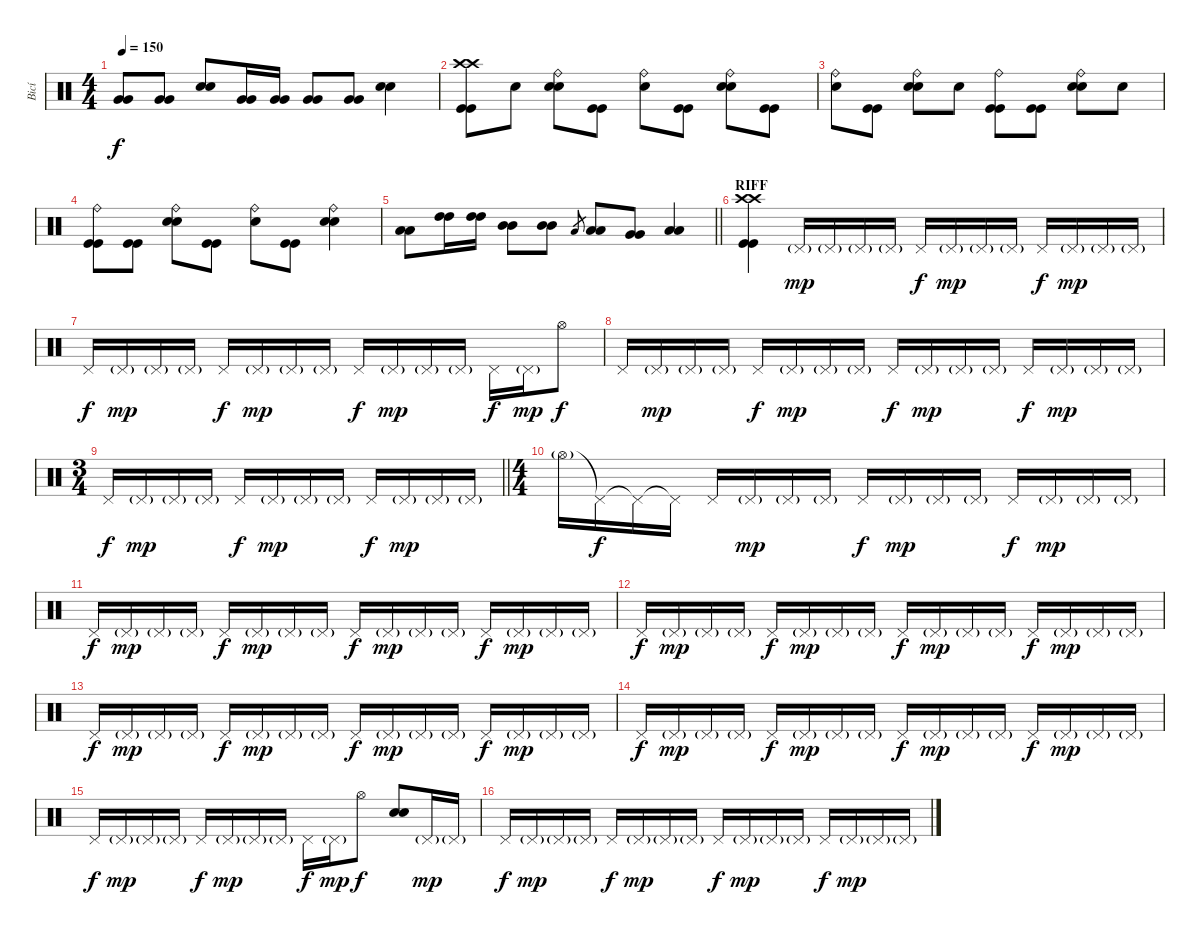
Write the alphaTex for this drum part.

\track ("Bicí" "Bicí") {instrument percussion}
\staff {score}
\articulation defaults
\ts (4 4)
\tempo 150
\clef neutral
\ks c
("Very Low Tom (hit)" "Very Low Tom (hit)").8{dy f} ("Very Low Tom (hit)" "Very Low Tom (hit)").8 ("Electric Snare (hit)" "Electric Snare (hit)").8 ("Very Low Tom (hit)" "Very Low Tom (hit)").16 ("Very Low Tom (hit)" "Very Low Tom (hit)").16 ("Very Low Tom (hit)" "Very Low Tom (hit)").8 ("Very Low Tom (hit)" "Very Low Tom (hit)").8 ("Electric Snare (hit)" "Electric Snare (hit)").4 |
("Crash high (hit)" "Crash high (hit)" "Kick (hit)" "Kick (hit)").8 "Snare (hit)".8 ("Ride (bell)" "Electric Snare (hit)" "Electric Snare (hit)").8 ("Kick (hit)" "Kick (hit)").8 ("Ride (bell)" "Snare (hit)").8 ("Kick (hit)" "Kick (hit)").8 ("Ride (bell)" "Electric Snare (hit)" "Electric Snare (hit)").8 ("Kick (hit)" "Kick (hit)").8 |
("Ride (bell)" "Snare (hit)").8 ("Kick (hit)" "Kick (hit)").8 ("Ride (bell)" "Electric Snare (hit)" "Electric Snare (hit)").8 "Snare (hit)".8 ("Ride (bell)" "Kick (hit)" "Kick (hit)").8 ("Kick (hit)" "Kick (hit)").8 ("Ride (bell)" "Electric Snare (hit)" "Electric Snare (hit)").8 "Snare (hit)".8 |
("Ride (bell)" "Kick (hit)" "Kick (hit)").8 ("Kick (hit)" "Kick (hit)").8 ("Ride (bell)" "Electric Snare (hit)" "Electric Snare (hit)").8 ("Kick (hit)" "Kick (hit)").8 ("Ride (bell)" "Snare (hit)").8 ("Kick (hit)" "Kick (hit)").8 ("Ride (bell)" "Electric Snare (hit)" "Electric Snare (hit)").4 |
\barLineRight lightlight
("Low Tom (hit)" "Low Tom (hit)").8 ("High Tom (hit)" "High Tom (hit)").16 ("High Tom (hit)" "High Tom (hit)").16 ("Mid Tom (hit)" "Mid Tom (hit)").8 ("Mid Tom (hit)" "Mid Tom (hit)").8 "Low Tom (hit)".8{gr} ("Low Tom (hit)" "Low Tom (hit)").8 ("Very Low Tom (hit)" "Very Low Tom (hit)").8 ("Low Floor Tom (hit)" "Low Floor Tom (hit)").4 |
\section ("" "RIFF")
("Crash high (hit)" "Crash high (hit)" "Kick (hit)" "Kick (hit)").4 "Pedal Hi-Hat (hit)"{g}.16{dy mp} "Pedal Hi-Hat (hit)"{g}.16 "Pedal Hi-Hat (hit)"{g}.16 "Pedal Hi-Hat (hit)"{g}.16 "Pedal Hi-Hat (hit)".16{dy f} "Pedal Hi-Hat (hit)"{g}.16{dy mp} "Pedal Hi-Hat (hit)"{g}.16 "Pedal Hi-Hat (hit)"{g}.16 "Pedal Hi-Hat (hit)".16{dy f} "Pedal Hi-Hat (hit)"{g}.16{dy mp} "Pedal Hi-Hat (hit)"{g}.16 "Pedal Hi-Hat (hit)"{g}.16 |
"Pedal Hi-Hat (hit)".16{dy f} "Pedal Hi-Hat (hit)"{g}.16{dy mp} "Pedal Hi-Hat (hit)"{g}.16 "Pedal Hi-Hat (hit)"{g}.16 "Pedal Hi-Hat (hit)".16{dy f} "Pedal Hi-Hat (hit)"{g}.16{dy mp} "Pedal Hi-Hat (hit)"{g}.16 "Pedal Hi-Hat (hit)"{g}.16 "Pedal Hi-Hat (hit)".16{dy f} "Pedal Hi-Hat (hit)"{g}.16{dy mp} "Pedal Hi-Hat (hit)"{g}.16 "Pedal Hi-Hat (hit)"{g}.16 "Pedal Hi-Hat (hit)".16{dy f} "Pedal Hi-Hat (hit)"{g}.16{dy mp} "Hi-Hat (open)".8{dy f} |
"Pedal Hi-Hat (hit)".16 "Pedal Hi-Hat (hit)"{g}.16{dy mp} "Pedal Hi-Hat (hit)"{g}.16 "Pedal Hi-Hat (hit)"{g}.16 "Pedal Hi-Hat (hit)".16{dy f} "Pedal Hi-Hat (hit)"{g}.16{dy mp} "Pedal Hi-Hat (hit)"{g}.16 "Pedal Hi-Hat (hit)"{g}.16 "Pedal Hi-Hat (hit)".16{dy f} "Pedal Hi-Hat (hit)"{g}.16{dy mp} "Pedal Hi-Hat (hit)"{g}.16 "Pedal Hi-Hat (hit)"{g}.16 "Pedal Hi-Hat (hit)".16{dy f} "Pedal Hi-Hat (hit)"{g}.16{dy mp} "Pedal Hi-Hat (hit)"{g}.16 "Pedal Hi-Hat (hit)"{g}.16 |
\ts (3 4)
\barLineRight lightlight "Pedal Hi-Hat (hit)".16{dy f} "Pedal Hi-Hat (hit)"{g}.16{dy mp} "Pedal Hi-Hat (hit)"{g}.16 "Pedal Hi-Hat (hit)"{g}.16 "Pedal Hi-Hat (hit)".16{dy f} "Pedal Hi-Hat (hit)"{g}.16{dy mp} "Pedal Hi-Hat (hit)"{g}.16 "Pedal Hi-Hat (hit)"{g}.16 "Pedal Hi-Hat (hit)".16{dy f} "Pedal Hi-Hat (hit)"{g}.16{dy mp} "Pedal Hi-Hat (hit)"{g}.16 "Pedal Hi-Hat (hit)"{g}.16
|
\ts (4 4)
\section ("" "")
"Hi-Hat (open)"{g}.16 "Pedal Hi-Hat (hit)"{t}.16{dy f} "Pedal Hi-Hat (hit)"{t}.16 "Pedal Hi-Hat (hit)"{t}.16 "Pedal Hi-Hat (hit)".16 "Pedal Hi-Hat (hit)"{g}.16{dy mp} "Pedal Hi-Hat (hit)"{g}.16 "Pedal Hi-Hat (hit)"{g}.16 "Pedal Hi-Hat (hit)".16{dy f} "Pedal Hi-Hat (hit)"{g}.16{dy mp} "Pedal Hi-Hat (hit)"{g}.16 "Pedal Hi-Hat (hit)"{g}.16 "Pedal Hi-Hat (hit)".16{dy f} "Pedal Hi-Hat (hit)"{g}.16{dy mp} "Pedal Hi-Hat (hit)"{g}.16 "Pedal Hi-Hat (hit)"{g}.16 |
"Pedal Hi-Hat (hit)".16{dy f} "Pedal Hi-Hat (hit)"{g}.16{dy mp} "Pedal Hi-Hat (hit)"{g}.16 "Pedal Hi-Hat (hit)"{g}.16 "Pedal Hi-Hat (hit)".16{dy f} "Pedal Hi-Hat (hit)"{g}.16{dy mp} "Pedal Hi-Hat (hit)"{g}.16 "Pedal Hi-Hat (hit)"{g}.16 "Pedal Hi-Hat (hit)".16{dy f} "Pedal Hi-Hat (hit)"{g}.16{dy mp} "Pedal Hi-Hat (hit)"{g}.16 "Pedal Hi-Hat (hit)"{g}.16 "Pedal Hi-Hat (hit)".16{dy f} "Pedal Hi-Hat (hit)"{g}.16{dy mp} "Pedal Hi-Hat (hit)"{g}.16 "Pedal Hi-Hat (hit)"{g}.16 |
"Pedal Hi-Hat (hit)".16{dy f} "Pedal Hi-Hat (hit)"{g}.16{dy mp} "Pedal Hi-Hat (hit)"{g}.16 "Pedal Hi-Hat (hit)"{g}.16 "Pedal Hi-Hat (hit)".16{dy f} "Pedal Hi-Hat (hit)"{g}.16{dy mp} "Pedal Hi-Hat (hit)"{g}.16 "Pedal Hi-Hat (hit)"{g}.16 "Pedal Hi-Hat (hit)".16{dy f} "Pedal Hi-Hat (hit)"{g}.16{dy mp} "Pedal Hi-Hat (hit)"{g}.16 "Pedal Hi-Hat (hit)"{g}.16 "Pedal Hi-Hat (hit)".16{dy f} "Pedal Hi-Hat (hit)"{g}.16{dy mp} "Pedal Hi-Hat (hit)"{g}.16 "Pedal Hi-Hat (hit)"{g}.16 |
"Pedal Hi-Hat (hit)".16{dy f} "Pedal Hi-Hat (hit)"{g}.16{dy mp} "Pedal Hi-Hat (hit)"{g}.16 "Pedal Hi-Hat (hit)"{g}.16 "Pedal Hi-Hat (hit)".16{dy f} "Pedal Hi-Hat (hit)"{g}.16{dy mp} "Pedal Hi-Hat (hit)"{g}.16 "Pedal Hi-Hat (hit)"{g}.16 "Pedal Hi-Hat (hit)".16{dy f} "Pedal Hi-Hat (hit)"{g}.16{dy mp} "Pedal Hi-Hat (hit)"{g}.16 "Pedal Hi-Hat (hit)"{g}.16 "Pedal Hi-Hat (hit)".16{dy f} "Pedal Hi-Hat (hit)"{g}.16{dy mp} "Pedal Hi-Hat (hit)"{g}.16 "Pedal Hi-Hat (hit)"{g}.16 |
"Pedal Hi-Hat (hit)".16{dy f} "Pedal Hi-Hat (hit)"{g}.16{dy mp} "Pedal Hi-Hat (hit)"{g}.16 "Pedal Hi-Hat (hit)"{g}.16 "Pedal Hi-Hat (hit)".16{dy f} "Pedal Hi-Hat (hit)"{g}.16{dy mp} "Pedal Hi-Hat (hit)"{g}.16 "Pedal Hi-Hat (hit)"{g}.16 "Pedal Hi-Hat (hit)".16{dy f} "Pedal Hi-Hat (hit)"{g}.16{dy mp} "Pedal Hi-Hat (hit)"{g}.16 "Pedal Hi-Hat (hit)"{g}.16 "Pedal Hi-Hat (hit)".16{dy f} "Pedal Hi-Hat (hit)"{g}.16{dy mp} "Pedal Hi-Hat (hit)"{g}.16 "Pedal Hi-Hat (hit)"{g}.16 |
"Pedal Hi-Hat (hit)".16{dy f} "Pedal Hi-Hat (hit)"{g}.16{dy mp} "Pedal Hi-Hat (hit)"{g}.16 "Pedal Hi-Hat (hit)"{g}.16 "Pedal Hi-Hat (hit)".16{dy f} "Pedal Hi-Hat (hit)"{g}.16{dy mp} "Pedal Hi-Hat (hit)"{g}.16 "Pedal Hi-Hat (hit)"{g}.16 "Pedal Hi-Hat (hit)".16{dy f} "Pedal Hi-Hat (hit)"{g}.16{dy mp} "Hi-Hat (open)".8{dy f} ("Electric Snare (hit)" "Electric Snare (hit)").8 "Pedal Hi-Hat (hit)"{g}.16{dy mp} "Pedal Hi-Hat (hit)"{g}.16 |
"Pedal Hi-Hat (hit)".16{dy f} "Pedal Hi-Hat (hit)"{g}.16{dy mp} "Pedal Hi-Hat (hit)"{g}.16 "Pedal Hi-Hat (hit)"{g}.16 "Pedal Hi-Hat (hit)".16{dy f} "Pedal Hi-Hat (hit)"{g}.16{dy mp} "Pedal Hi-Hat (hit)"{g}.16 "Pedal Hi-Hat (hit)"{g}.16 "Pedal Hi-Hat (hit)".16{dy f} "Pedal Hi-Hat (hit)"{g}.16{dy mp} "Pedal Hi-Hat (hit)"{g}.16 "Pedal Hi-Hat (hit)"{g}.16 "Pedal Hi-Hat (hit)".16{dy f} "Pedal Hi-Hat (hit)"{g}.16{dy mp} "Pedal Hi-Hat (hit)"{g}.16 "Pedal Hi-Hat (hit)"{g}.16
